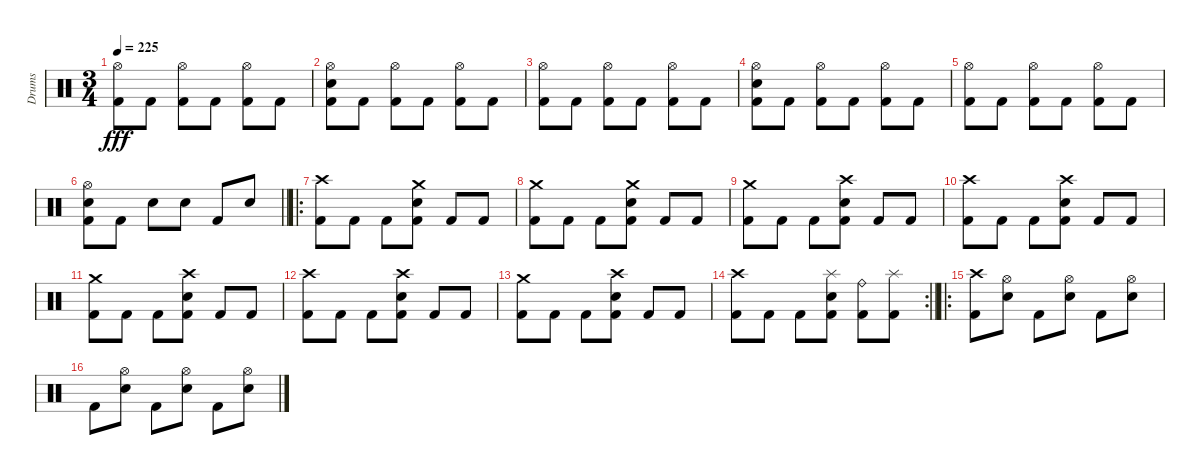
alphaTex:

\track ("Drums" "Drums") {instrument percussion}
\staff {score}
\articulation defaults
\ts (3 4)
\tempo 225
\clef neutral
\ks c
("Hi-Hat (open)" "Kick (hit) 2").8{dy fff} "Kick (hit) 2".8 ("Hi-Hat (open)" "Kick (hit) 2").8 "Kick (hit) 2".8 ("Hi-Hat (open)" "Kick (hit) 2").8 "Kick (hit) 2".8 |
("Hi-Hat (open)" "Electric Snare (hit)" "Kick (hit) 2").8 "Kick (hit) 2".8 ("Hi-Hat (open)" "Kick (hit) 2").8 "Kick (hit) 2".8 ("Hi-Hat (open)" "Kick (hit) 2").8 "Kick (hit) 2".8 |
("Hi-Hat (open)" "Kick (hit) 2").8 "Kick (hit) 2".8 ("Hi-Hat (open)" "Kick (hit) 2").8 "Kick (hit) 2".8 ("Hi-Hat (open)" "Kick (hit) 2").8 "Kick (hit) 2".8 |
("Hi-Hat (open)" "Electric Snare (hit)" "Kick (hit) 2").8 "Kick (hit) 2".8 ("Hi-Hat (open)" "Kick (hit) 2").8 "Kick (hit) 2".8 ("Hi-Hat (open)" "Kick (hit) 2").8 "Kick (hit) 2".8 |
("Hi-Hat (open)" "Kick (hit) 2").8 "Kick (hit) 2".8 ("Hi-Hat (open)" "Kick (hit) 2").8 "Kick (hit) 2".8 ("Hi-Hat (open)" "Kick (hit) 2").8 "Kick (hit) 2".8 |
\barLineRight lightlight
("Hi-Hat (open)" "Electric Snare (hit)" "Kick (hit) 2").8 "Kick (hit) 2".8 "Electric Snare (hit)".8 "Electric Snare (hit)".8 "Kick (hit) 2".8 "Electric Snare (hit)".8 |
\ro
("Crash high (hit)" "Kick (hit) 2").8 "Kick (hit) 2".8 "Kick (hit) 2".8 ("Crash medium (hit)" "Electric Snare (hit)" "Kick (hit) 2").8 "Kick (hit) 2".8 "Kick (hit) 2".8 |
("Crash medium (hit)" "Kick (hit) 2").8 "Kick (hit) 2".8 "Kick (hit) 2".8 ("Crash medium (hit)" "Electric Snare (hit)" "Kick (hit) 2").8 "Kick (hit) 2".8 "Kick (hit) 2".8 |
("Crash medium (hit)" "Kick (hit) 2").8 "Kick (hit) 2".8 "Kick (hit) 2".8 ("Crash high (hit)" "Electric Snare (hit)" "Kick (hit) 2").8 "Kick (hit) 2".8 "Kick (hit) 2".8 |
("Crash high (hit)" "Kick (hit) 2").8 "Kick (hit) 2".8 "Kick (hit) 2".8 ("Crash high (hit)" "Electric Snare (hit)" "Kick (hit) 2").8 "Kick (hit) 2".8 "Kick (hit) 2".8 |
("Crash medium (hit)" "Kick (hit) 2").8 "Kick (hit) 2".8 "Kick (hit) 2".8 ("Crash high (hit)" "Electric Snare (hit)" "Kick (hit) 2").8 "Kick (hit) 2".8 "Kick (hit) 2".8 |
("Crash high (hit)" "Kick (hit) 2").8 "Kick (hit) 2".8 "Kick (hit) 2".8 ("Crash high (hit)" "Electric Snare (hit)" "Kick (hit) 2").8 "Kick (hit) 2".8 "Kick (hit) 2".8 |
("Crash medium (hit)" "Kick (hit) 2").8 "Kick (hit) 2".8 "Kick (hit) 2".8 ("Crash high (hit)" "Electric Snare (hit)" "Kick (hit) 2").8 "Kick (hit) 2".8 "Kick (hit) 2".8 |
\rc 2
\barLineRight lightlight
("Crash high (hit)" "Kick (hit) 2").8 "Kick (hit) 2".8 "Kick (hit) 2".8 ("Splash (hit)" "Electric Snare (hit)" "Kick (hit) 2").8 ("Ride (bell)" "Kick (hit) 2").8 ("Splash (hit)" "Kick (hit) 2").8 |
\ro
("Crash high (hit)" "Kick (hit) 2").8 ("Hi-Hat (open)" "Electric Snare (hit)").8 "Kick (hit) 2".8 ("Hi-Hat (open)" "Electric Snare (hit)").8 "Kick (hit) 2".8 ("Hi-Hat (open)" "Electric Snare (hit)").8 |
"Kick (hit) 2".8 ("Hi-Hat (open)" "Electric Snare (hit)").8 "Kick (hit) 2".8 ("Hi-Hat (open)" "Electric Snare (hit)").8 "Kick (hit) 2".8 ("Hi-Hat (open)" "Electric Snare (hit)").8
